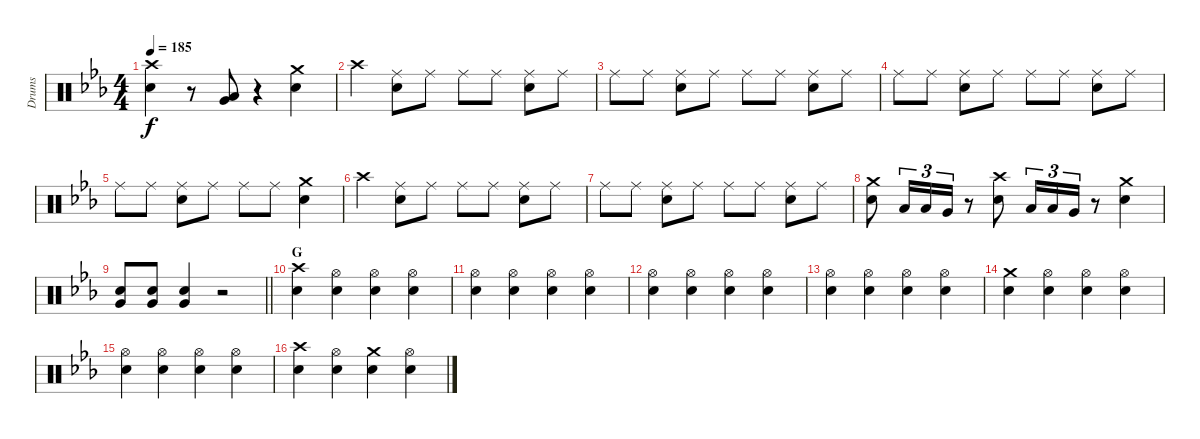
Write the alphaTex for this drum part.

\track ("Drums" "Drums") {instrument percussion}
\staff {score}
\articulation defaults
\ts (4 4)
\tempo 185
\clef neutral
\ks eb
("Crash high (hit)" "Snare (hit) 2").4{dy f} r.8 ("Low Tom (hit)" "Very Low Tom (hit)").8 r.4 ("Crash medium (hit)" "Snare (hit) 2").4 |
"Crash high (hit)".4 ("Ride (middle)" "Snare (hit) 2").8 "Ride (middle)".8 "Ride (middle)".8 "Ride (middle)".8 ("Ride (middle)" "Snare (hit) 2").8 "Ride (middle)".8 |
"Ride (middle)".8 "Ride (middle)".8 ("Ride (middle)" "Snare (hit) 2").8 "Ride (middle)".8 "Ride (middle)".8 "Ride (middle)".8 ("Ride (middle)" "Snare (hit) 2").8 "Ride (middle)".8 |
"Ride (middle)".8 "Ride (middle)".8 ("Ride (middle)" "Snare (hit) 2").8 "Ride (middle)".8 "Ride (middle)".8 "Ride (middle)".8 ("Ride (middle)" "Snare (hit) 2").8 "Ride (middle)".8 |
"Ride (middle)".8 "Ride (middle)".8 ("Ride (middle)" "Snare (hit) 2").8 "Ride (middle)".8 "Ride (middle)".8 "Ride (middle)".8 ("Crash medium (hit)" "Snare (hit) 2").4 |
"Crash high (hit)".4 ("Ride (middle)" "Snare (hit) 2").8 "Ride (middle)".8 "Ride (middle)".8 "Ride (middle)".8 ("Ride (middle)" "Snare (hit) 2").8 "Ride (middle)".8 |
"Ride (middle)".8 "Ride (middle)".8 ("Ride (middle)" "Snare (hit) 2").8 "Ride (middle)".8 "Ride (middle)".8 "Ride (middle)".8 ("Ride (middle)" "Snare (hit) 2").8 "Ride (middle)".8 |
("Crash medium (hit)" "Snare (hit) 2").8 "Low Tom (hit)".16{tu (3 2)} "Low Tom (hit)".16{tu (3 2)} "Very Low Tom (hit)".16{tu (3 2)} r.8 ("Crash high (hit)" "Snare (hit) 2").8 "Low Tom (hit)".16{tu (3 2)} "Low Tom (hit)".16{tu (3 2)} "Very Low Tom (hit)".16{tu (3 2)} r.8 ("Crash medium (hit)" "Snare (hit) 2").4 |
\barLineRight lightlight
("Snare (hit) 2" "Very Low Tom (hit)").8 ("Snare (hit) 2" "Very Low Tom (hit)").8 ("Snare (hit) 2" "Very Low Tom (hit)").4 r.2 |
\section ("" "G")
("Crash high (hit)" "Snare (hit) 2").4 ("Hi-Hat (open)" "Snare (hit) 2").4 ("Hi-Hat (open)" "Snare (hit) 2").4 ("Hi-Hat (open)" "Snare (hit) 2").4 |
("Hi-Hat (open)" "Snare (hit) 2").4 ("Hi-Hat (open)" "Snare (hit) 2").4 ("Hi-Hat (open)" "Snare (hit) 2").4 ("Hi-Hat (open)" "Snare (hit) 2").4 |
("Hi-Hat (open)" "Snare (hit) 2").4 ("Hi-Hat (open)" "Snare (hit) 2").4 ("Hi-Hat (open)" "Snare (hit) 2").4 ("Hi-Hat (open)" "Snare (hit) 2").4 |
("Hi-Hat (open)" "Snare (hit) 2").4 ("Hi-Hat (open)" "Snare (hit) 2").4 ("Hi-Hat (open)" "Snare (hit) 2").4 ("Hi-Hat (open)" "Snare (hit) 2").4 |
("Crash medium (hit)" "Snare (hit) 2").4 ("Hi-Hat (open)" "Snare (hit) 2").4 ("Hi-Hat (open)" "Snare (hit) 2").4 ("Hi-Hat (open)" "Snare (hit) 2").4 |
("Hi-Hat (open)" "Snare (hit) 2").4 ("Hi-Hat (open)" "Snare (hit) 2").4 ("Hi-Hat (open)" "Snare (hit) 2").4 ("Hi-Hat (open)" "Snare (hit) 2").4 |
("Crash high (hit)" "Snare (hit) 2").4 ("Hi-Hat (open)" "Snare (hit) 2").4 ("Crash medium (hit)" "Snare (hit) 2").4 ("Hi-Hat (open)" "Snare (hit) 2").4
